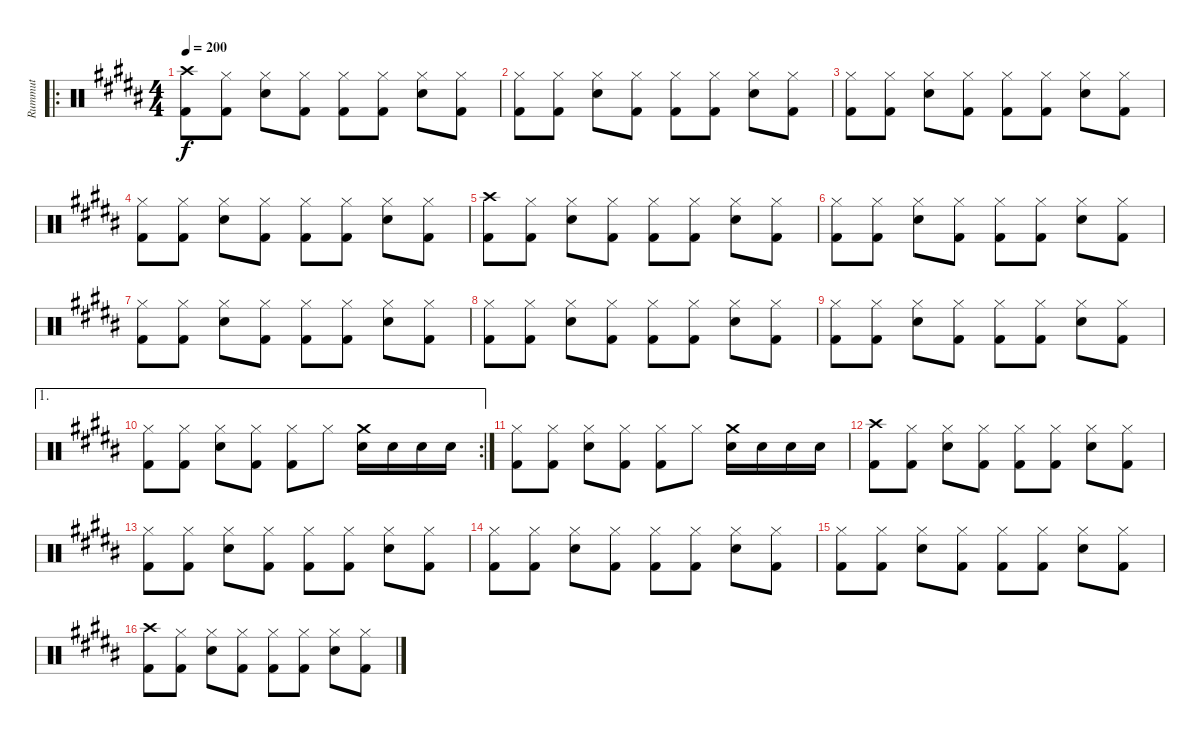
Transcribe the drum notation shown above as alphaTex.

\track ("Rummut" "Rummut") {instrument percussion}
\staff {score}
\articulation defaults
\ro
\ts (4 4)
\tempo 200
\clef neutral
\ks b
("Crash high (hit)" "Kick (hit) 2").8{dy f} ("Hi-Hat (closed)" "Kick (hit) 2").8 ("Hi-Hat (closed)" "Electric Snare (hit)").8 ("Hi-Hat (closed)" "Kick (hit) 2").8 ("Hi-Hat (closed)" "Kick (hit) 2").8 ("Hi-Hat (closed)" "Kick (hit) 2").8 ("Hi-Hat (closed)" "Electric Snare (hit)").8 ("Hi-Hat (closed)" "Kick (hit) 2").8 |
("Hi-Hat (closed)" "Kick (hit) 2").8 ("Hi-Hat (closed)" "Kick (hit) 2").8 ("Hi-Hat (closed)" "Electric Snare (hit)").8 ("Hi-Hat (closed)" "Kick (hit) 2").8 ("Hi-Hat (closed)" "Kick (hit) 2").8 ("Hi-Hat (closed)" "Kick (hit) 2").8 ("Hi-Hat (closed)" "Electric Snare (hit)").8 ("Hi-Hat (closed)" "Kick (hit) 2").8 |
("Hi-Hat (closed)" "Kick (hit) 2").8 ("Hi-Hat (closed)" "Kick (hit) 2").8 ("Hi-Hat (closed)" "Electric Snare (hit)").8 ("Hi-Hat (closed)" "Kick (hit) 2").8 ("Hi-Hat (closed)" "Kick (hit) 2").8 ("Hi-Hat (closed)" "Kick (hit) 2").8 ("Hi-Hat (closed)" "Electric Snare (hit)").8 ("Hi-Hat (closed)" "Kick (hit) 2").8 |
("Hi-Hat (closed)" "Kick (hit) 2").8 ("Hi-Hat (closed)" "Kick (hit) 2").8 ("Hi-Hat (closed)" "Electric Snare (hit)").8 ("Hi-Hat (closed)" "Kick (hit) 2").8 ("Hi-Hat (closed)" "Kick (hit) 2").8 ("Hi-Hat (closed)" "Kick (hit) 2").8 ("Hi-Hat (closed)" "Electric Snare (hit)").8 ("Hi-Hat (closed)" "Kick (hit) 2").8 |
("Crash high (hit)" "Kick (hit) 2").8 ("Hi-Hat (closed)" "Kick (hit) 2").8 ("Hi-Hat (closed)" "Electric Snare (hit)").8 ("Hi-Hat (closed)" "Kick (hit) 2").8 ("Hi-Hat (closed)" "Kick (hit) 2").8 ("Hi-Hat (closed)" "Kick (hit) 2").8 ("Hi-Hat (closed)" "Electric Snare (hit)").8 ("Hi-Hat (closed)" "Kick (hit) 2").8 |
("Hi-Hat (closed)" "Kick (hit) 2").8 ("Hi-Hat (closed)" "Kick (hit) 2").8 ("Hi-Hat (closed)" "Electric Snare (hit)").8 ("Hi-Hat (closed)" "Kick (hit) 2").8 ("Hi-Hat (closed)" "Kick (hit) 2").8 ("Hi-Hat (closed)" "Kick (hit) 2").8 ("Hi-Hat (closed)" "Electric Snare (hit)").8 ("Hi-Hat (closed)" "Kick (hit) 2").8 |
("Hi-Hat (closed)" "Kick (hit) 2").8 ("Hi-Hat (closed)" "Kick (hit) 2").8 ("Hi-Hat (closed)" "Electric Snare (hit)").8 ("Hi-Hat (closed)" "Kick (hit) 2").8 ("Hi-Hat (closed)" "Kick (hit) 2").8 ("Hi-Hat (closed)" "Kick (hit) 2").8 ("Hi-Hat (closed)" "Electric Snare (hit)").8 ("Hi-Hat (closed)" "Kick (hit) 2").8 |
("Hi-Hat (closed)" "Kick (hit) 2").8 ("Hi-Hat (closed)" "Kick (hit) 2").8 ("Hi-Hat (closed)" "Electric Snare (hit)").8 ("Hi-Hat (closed)" "Kick (hit) 2").8 ("Hi-Hat (closed)" "Kick (hit) 2").8 ("Hi-Hat (closed)" "Kick (hit) 2").8 ("Hi-Hat (closed)" "Electric Snare (hit)").8 ("Hi-Hat (closed)" "Kick (hit) 2").8 |
("Hi-Hat (closed)" "Kick (hit) 2").8 ("Hi-Hat (closed)" "Kick (hit) 2").8 ("Hi-Hat (closed)" "Electric Snare (hit)").8 ("Hi-Hat (closed)" "Kick (hit) 2").8 ("Hi-Hat (closed)" "Kick (hit) 2").8 ("Hi-Hat (closed)" "Kick (hit) 2").8 ("Hi-Hat (closed)" "Electric Snare (hit)").8 ("Hi-Hat (closed)" "Kick (hit) 2").8 |
\ae 1
\rc 2
("Hi-Hat (closed)" "Kick (hit) 2").8 ("Hi-Hat (closed)" "Kick (hit) 2").8 ("Hi-Hat (closed)" "Electric Snare (hit)").8 ("Hi-Hat (closed)" "Kick (hit) 2").8 ("Hi-Hat (closed)" "Kick (hit) 2").8 "Hi-Hat (closed)".8 ("Crash medium (hit)" "Electric Snare (hit)").16 "Electric Snare (hit)".16 "Electric Snare (hit)".16 "Electric Snare (hit)".16 |
("Hi-Hat (closed)" "Kick (hit) 2").8 ("Hi-Hat (closed)" "Kick (hit) 2").8 ("Hi-Hat (closed)" "Electric Snare (hit)").8 ("Hi-Hat (closed)" "Kick (hit) 2").8 ("Hi-Hat (closed)" "Kick (hit) 2").8 "Hi-Hat (closed)".8 ("Crash medium (hit)" "Electric Snare (hit)").16 "Electric Snare (hit)".16 "Electric Snare (hit)".16 "Electric Snare (hit)".16 |
("Crash high (hit)" "Kick (hit) 2").8 ("Hi-Hat (closed)" "Kick (hit) 2").8 ("Hi-Hat (closed)" "Electric Snare (hit)").8 ("Hi-Hat (closed)" "Kick (hit) 2").8 ("Hi-Hat (closed)" "Kick (hit) 2").8 ("Hi-Hat (closed)" "Kick (hit) 2").8 ("Hi-Hat (closed)" "Electric Snare (hit)").8 ("Hi-Hat (closed)" "Kick (hit) 2").8 |
("Hi-Hat (closed)" "Kick (hit) 2").8 ("Hi-Hat (closed)" "Kick (hit) 2").8 ("Hi-Hat (closed)" "Electric Snare (hit)").8 ("Hi-Hat (closed)" "Kick (hit) 2").8 ("Hi-Hat (closed)" "Kick (hit) 2").8 ("Hi-Hat (closed)" "Kick (hit) 2").8 ("Hi-Hat (closed)" "Electric Snare (hit)").8 ("Hi-Hat (closed)" "Kick (hit) 2").8 |
("Hi-Hat (closed)" "Kick (hit) 2").8 ("Hi-Hat (closed)" "Kick (hit) 2").8 ("Hi-Hat (closed)" "Electric Snare (hit)").8 ("Hi-Hat (closed)" "Kick (hit) 2").8 ("Hi-Hat (closed)" "Kick (hit) 2").8 ("Hi-Hat (closed)" "Kick (hit) 2").8 ("Hi-Hat (closed)" "Electric Snare (hit)").8 ("Hi-Hat (closed)" "Kick (hit) 2").8 |
("Hi-Hat (closed)" "Kick (hit) 2").8 ("Hi-Hat (closed)" "Kick (hit) 2").8 ("Hi-Hat (closed)" "Electric Snare (hit)").8 ("Hi-Hat (closed)" "Kick (hit) 2").8 ("Hi-Hat (closed)" "Kick (hit) 2").8 ("Hi-Hat (closed)" "Kick (hit) 2").8 ("Hi-Hat (closed)" "Electric Snare (hit)").8 ("Hi-Hat (closed)" "Kick (hit) 2").8 |
("Crash high (hit)" "Kick (hit) 2").8 ("Hi-Hat (closed)" "Kick (hit) 2").8 ("Hi-Hat (closed)" "Electric Snare (hit)").8 ("Hi-Hat (closed)" "Kick (hit) 2").8 ("Hi-Hat (closed)" "Kick (hit) 2").8 ("Hi-Hat (closed)" "Kick (hit) 2").8 ("Hi-Hat (closed)" "Electric Snare (hit)").8 ("Hi-Hat (closed)" "Kick (hit) 2").8
